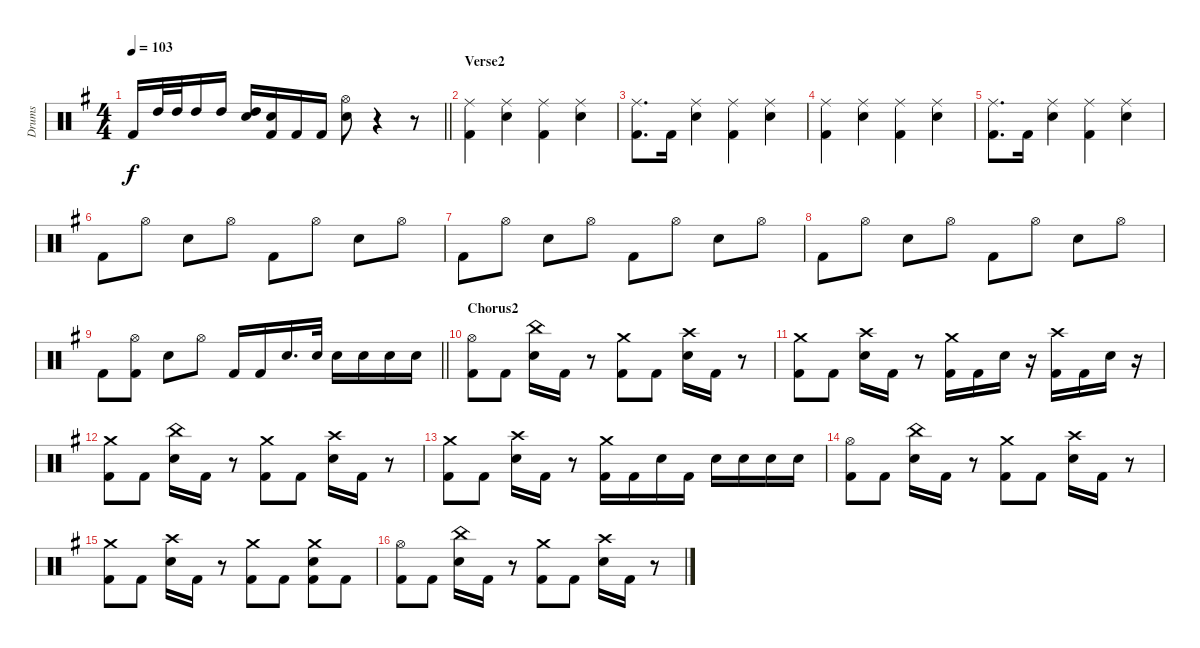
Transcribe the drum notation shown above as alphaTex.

\track ("Drums" "Drums") {instrument percussion}
\staff {score}
\articulation defaults
\ts (4 4)
\tempo 103
\clef neutral
\barLineRight lightlight
\ks eminor "Kick (hit) 2".16{dy f} "High Tom (hit)".32 "High Tom (hit)".32 "High Tom (hit)".16 "High Tom (hit)".16
("High Tom (hit)" "Electric Snare (hit)").16 ("Electric Snare (hit)" "Kick (hit) 2").16 "Kick (hit) 2".16 "Kick (hit) 2".16 ("Hi-Hat (open)" "Electric Snare (hit)").8 r.4 r.8 |
\section ("" "Verse2")
("Ride (middle)" "Kick (hit) 2").4 ("Ride (middle)" "Electric Snare (hit)").4 ("Ride (middle)" "Kick (hit) 2").4 ("Ride (middle)" "Electric Snare (hit)").4 |
("Ride (middle)" "Kick (hit) 2").8{d} "Kick (hit) 2".16 ("Ride (middle)" "Electric Snare (hit)").4 ("Ride (middle)" "Kick (hit) 2").4 ("Ride (middle)" "Electric Snare (hit)").4 |
("Ride (middle)" "Kick (hit) 2").4 ("Ride (middle)" "Electric Snare (hit)").4 ("Ride (middle)" "Kick (hit) 2").4 ("Ride (middle)" "Electric Snare (hit)").4 |
("Ride (middle)" "Kick (hit) 2").8{d} "Kick (hit) 2".16 ("Ride (middle)" "Electric Snare (hit)").4 ("Ride (middle)" "Kick (hit) 2").4 ("Ride (middle)" "Electric Snare (hit)").4 |
"Kick (hit) 2".8 "Hi-Hat (open)".8 "Electric Snare (hit)".8 "Hi-Hat (open)".8 "Kick (hit) 2".8 "Hi-Hat (open)".8 "Electric Snare (hit)".8 "Hi-Hat (open)".8 |
"Kick (hit) 2".8 "Hi-Hat (open)".8 "Electric Snare (hit)".8 "Hi-Hat (open)".8 "Kick (hit) 2".8 "Hi-Hat (open)".8 "Electric Snare (hit)".8 "Hi-Hat (open)".8 |
"Kick (hit) 2".8 "Hi-Hat (open)".8 "Electric Snare (hit)".8 "Hi-Hat (open)".8 "Kick (hit) 2".8 "Hi-Hat (open)".8 "Electric Snare (hit)".8 "Hi-Hat (open)".8 |
\barLineRight lightlight "Kick (hit) 2".8
("Hi-Hat (open)" "Kick (hit) 2").8 "Electric Snare (hit)".8 "Hi-Hat (open)".8 "Kick (hit) 2".16 "Kick (hit) 2".16 "Electric Snare (hit)".16{d} "Electric Snare (hit)".32 "Electric Snare (hit)".16 "Electric Snare (hit)".16 "Electric Snare (hit)".16 "Electric Snare (hit)".16 |
\section ("" "Chorus2")
("Hi-Hat (open)" "Kick (hit) 2").8 "Kick (hit) 2".8 ("China (hit)" "Electric Snare (hit)").16 "Kick (hit) 2".16 r.8 ("Crash medium (hit)" "Kick (hit) 2").8 "Kick (hit) 2".8 ("Crash high (hit)" "Electric Snare (hit)").16 "Kick (hit) 2".16 r.8 |
("Crash medium (hit)" "Kick (hit) 2").8 "Kick (hit) 2".8 ("Crash high (hit)" "Electric Snare (hit)").16 "Kick (hit) 2".16 r.8 ("Crash medium (hit)" "Kick (hit) 2").16 "Kick (hit) 2".16 "Electric Snare (hit)".16 r.16 ("Crash high (hit)" "Kick (hit) 2").16 "Kick (hit) 2".16 "Electric Snare (hit)".16 r.16 |
("Crash medium (hit)" "Kick (hit) 2").8 "Kick (hit) 2".8 ("China (hit)" "Electric Snare (hit)").16 "Kick (hit) 2".16 r.8 ("Crash medium (hit)" "Kick (hit) 2").8 "Kick (hit) 2".8 ("Crash high (hit)" "Electric Snare (hit)").16 "Kick (hit) 2".16 r.8 |
("Crash medium (hit)" "Kick (hit) 2").8 "Kick (hit) 2".8 ("Crash high (hit)" "Electric Snare (hit)").16 "Kick (hit) 2".16 r.8 ("Crash medium (hit)" "Kick (hit) 2").16 "Kick (hit) 2".16 "Electric Snare (hit)".16 "Kick (hit) 2".16 "Electric Snare (hit)".16 "Electric Snare (hit)".16 "Electric Snare (hit)".16 "Electric Snare (hit)".16 |
("Hi-Hat (open)" "Kick (hit) 2").8 "Kick (hit) 2".8 ("China (hit)" "Electric Snare (hit)").16 "Kick (hit) 2".16 r.8 ("Crash medium (hit)" "Kick (hit) 2").8 "Kick (hit) 2".8 ("Crash high (hit)" "Electric Snare (hit)").16 "Kick (hit) 2".16 r.8 |
("Crash medium (hit)" "Kick (hit) 2").8 "Kick (hit) 2".8 ("Crash high (hit)" "Electric Snare (hit)").16 "Kick (hit) 2".16 r.8 ("Crash medium (hit)" "Kick (hit) 2").8 "Kick (hit) 2".8 ("Crash medium (hit)" "Electric Snare (hit)" "Kick (hit) 2").8 "Kick (hit) 2".8 |
("Hi-Hat (open)" "Kick (hit) 2").8 "Kick (hit) 2".8 ("China (hit)" "Electric Snare (hit)").16 "Kick (hit) 2".16 r.8 ("Crash medium (hit)" "Kick (hit) 2").8 "Kick (hit) 2".8 ("Crash high (hit)" "Electric Snare (hit)").16 "Kick (hit) 2".16 r.8
